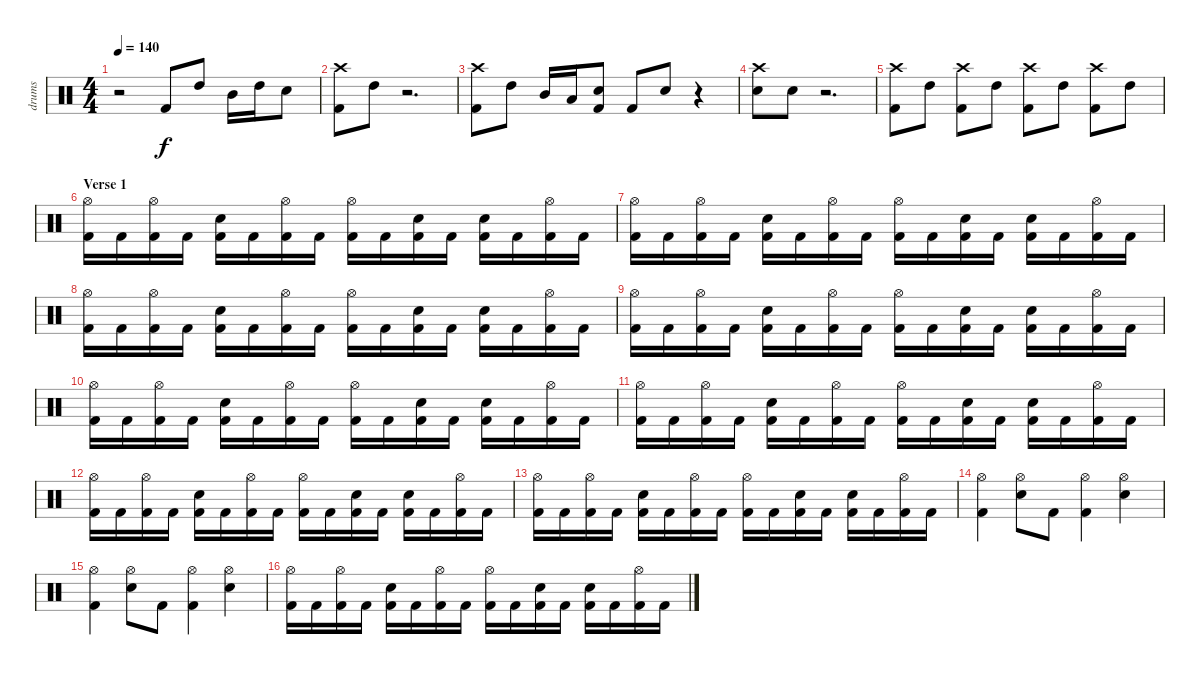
\track ("drums" "drums") {instrument percussion}
\staff {score}
\articulation defaults
\ts (4 4)
\tempo 140
\clef neutral
\ks c
r.2{dy f} "Kick (hit) 2".8 "High Tom (hit)".8 "Mid Tom (hit)".16 "High Tom (hit)".16 "Electric Snare (hit)".8 |
("Crash high (hit)" "Kick (hit) 2").8 "High Tom (hit)".8 r.2{d} |
("Crash high (hit)" "Kick (hit) 2").8 "High Tom (hit)".8 "Mid Tom (hit)".16 "Low Tom (hit)".16 ("Electric Snare (hit)" "Kick (hit) 2").8 "Kick (hit) 2".8 "Electric Snare (hit)".8 r.4 |
("Crash high (hit)" "Electric Snare (hit)").8 "Electric Snare (hit)".8 r.2{d} |
("Crash high (hit)" "Kick (hit) 2").8 "High Tom (hit)".8 ("Crash high (hit)" "Kick (hit) 2").8 "High Tom (hit)".8 ("Crash high (hit)" "Kick (hit) 2").8 "High Tom (hit)".8 ("Crash high (hit)" "Kick (hit) 2").8 "High Tom (hit)".8 |
\section ("" "Verse 1")
("Hi-Hat (open)" "Kick (hit) 2").16 "Kick (hit) 2".16 ("Hi-Hat (open)" "Kick (hit) 2").16 "Kick (hit) 2".16 ("Electric Snare (hit)" "Kick (hit) 2").16 "Kick (hit) 2".16 ("Hi-Hat (open)" "Kick (hit) 2").16 "Kick (hit) 2".16 ("Hi-Hat (open)" "Kick (hit) 2").16 "Kick (hit) 2".16 ("Electric Snare (hit)" "Kick (hit) 2").16 "Kick (hit) 2".16 ("Electric Snare (hit)" "Kick (hit) 2").16 "Kick (hit) 2".16 ("Hi-Hat (open)" "Kick (hit) 2").16 "Kick (hit) 2".16 |
("Hi-Hat (open)" "Kick (hit) 2").16 "Kick (hit) 2".16 ("Hi-Hat (open)" "Kick (hit) 2").16 "Kick (hit) 2".16 ("Electric Snare (hit)" "Kick (hit) 2").16 "Kick (hit) 2".16 ("Hi-Hat (open)" "Kick (hit) 2").16 "Kick (hit) 2".16 ("Hi-Hat (open)" "Kick (hit) 2").16 "Kick (hit) 2".16 ("Electric Snare (hit)" "Kick (hit) 2").16 "Kick (hit) 2".16 ("Electric Snare (hit)" "Kick (hit) 2").16 "Kick (hit) 2".16 ("Hi-Hat (open)" "Kick (hit) 2").16 "Kick (hit) 2".16 |
("Hi-Hat (open)" "Kick (hit) 2").16 "Kick (hit) 2".16 ("Hi-Hat (open)" "Kick (hit) 2").16 "Kick (hit) 2".16 ("Electric Snare (hit)" "Kick (hit) 2").16 "Kick (hit) 2".16 ("Hi-Hat (open)" "Kick (hit) 2").16 "Kick (hit) 2".16 ("Hi-Hat (open)" "Kick (hit) 2").16 "Kick (hit) 2".16 ("Electric Snare (hit)" "Kick (hit) 2").16 "Kick (hit) 2".16 ("Electric Snare (hit)" "Kick (hit) 2").16 "Kick (hit) 2".16 ("Hi-Hat (open)" "Kick (hit) 2").16 "Kick (hit) 2".16 |
("Hi-Hat (open)" "Kick (hit) 2").16 "Kick (hit) 2".16 ("Hi-Hat (open)" "Kick (hit) 2").16 "Kick (hit) 2".16 ("Electric Snare (hit)" "Kick (hit) 2").16 "Kick (hit) 2".16 ("Hi-Hat (open)" "Kick (hit) 2").16 "Kick (hit) 2".16 ("Hi-Hat (open)" "Kick (hit) 2").16 "Kick (hit) 2".16 ("Electric Snare (hit)" "Kick (hit) 2").16 "Kick (hit) 2".16 ("Electric Snare (hit)" "Kick (hit) 2").16 "Kick (hit) 2".16 ("Hi-Hat (open)" "Kick (hit) 2").16 "Kick (hit) 2".16 |
("Hi-Hat (open)" "Kick (hit) 2").16 "Kick (hit) 2".16 ("Hi-Hat (open)" "Kick (hit) 2").16 "Kick (hit) 2".16 ("Electric Snare (hit)" "Kick (hit) 2").16 "Kick (hit) 2".16 ("Hi-Hat (open)" "Kick (hit) 2").16 "Kick (hit) 2".16 ("Hi-Hat (open)" "Kick (hit) 2").16 "Kick (hit) 2".16 ("Electric Snare (hit)" "Kick (hit) 2").16 "Kick (hit) 2".16 ("Electric Snare (hit)" "Kick (hit) 2").16 "Kick (hit) 2".16 ("Hi-Hat (open)" "Kick (hit) 2").16 "Kick (hit) 2".16 |
("Hi-Hat (open)" "Kick (hit) 2").16 "Kick (hit) 2".16 ("Hi-Hat (open)" "Kick (hit) 2").16 "Kick (hit) 2".16 ("Electric Snare (hit)" "Kick (hit) 2").16 "Kick (hit) 2".16 ("Hi-Hat (open)" "Kick (hit) 2").16 "Kick (hit) 2".16 ("Hi-Hat (open)" "Kick (hit) 2").16 "Kick (hit) 2".16 ("Electric Snare (hit)" "Kick (hit) 2").16 "Kick (hit) 2".16 ("Electric Snare (hit)" "Kick (hit) 2").16 "Kick (hit) 2".16 ("Hi-Hat (open)" "Kick (hit) 2").16 "Kick (hit) 2".16 |
("Hi-Hat (open)" "Kick (hit) 2").16 "Kick (hit) 2".16 ("Hi-Hat (open)" "Kick (hit) 2").16 "Kick (hit) 2".16 ("Electric Snare (hit)" "Kick (hit) 2").16 "Kick (hit) 2".16 ("Hi-Hat (open)" "Kick (hit) 2").16 "Kick (hit) 2".16 ("Hi-Hat (open)" "Kick (hit) 2").16 "Kick (hit) 2".16 ("Electric Snare (hit)" "Kick (hit) 2").16 "Kick (hit) 2".16 ("Electric Snare (hit)" "Kick (hit) 2").16 "Kick (hit) 2".16 ("Hi-Hat (open)" "Kick (hit) 2").16 "Kick (hit) 2".16 |
("Hi-Hat (open)" "Kick (hit) 2").16 "Kick (hit) 2".16 ("Hi-Hat (open)" "Kick (hit) 2").16 "Kick (hit) 2".16 ("Electric Snare (hit)" "Kick (hit) 2").16 "Kick (hit) 2".16 ("Hi-Hat (open)" "Kick (hit) 2").16 "Kick (hit) 2".16 ("Hi-Hat (open)" "Kick (hit) 2").16 "Kick (hit) 2".16 ("Electric Snare (hit)" "Kick (hit) 2").16 "Kick (hit) 2".16 ("Electric Snare (hit)" "Kick (hit) 2").16 "Kick (hit) 2".16 ("Hi-Hat (open)" "Kick (hit) 2").16 "Kick (hit) 2".16 |
("Hi-Hat (open)" "Kick (hit) 2").4 ("Hi-Hat (open)" "Electric Snare (hit)").8 "Kick (hit) 2".8 ("Hi-Hat (open)" "Kick (hit) 2").4 ("Hi-Hat (open)" "Electric Snare (hit)").4 |
("Hi-Hat (open)" "Kick (hit) 2").4 ("Hi-Hat (open)" "Electric Snare (hit)").8 "Kick (hit) 2".8 ("Hi-Hat (open)" "Kick (hit) 2").4 ("Hi-Hat (open)" "Electric Snare (hit)").4 |
("Hi-Hat (open)" "Kick (hit) 2").16 "Kick (hit) 2".16 ("Hi-Hat (open)" "Kick (hit) 2").16 "Kick (hit) 2".16 ("Electric Snare (hit)" "Kick (hit) 2").16 "Kick (hit) 2".16 ("Hi-Hat (open)" "Kick (hit) 2").16 "Kick (hit) 2".16 ("Hi-Hat (open)" "Kick (hit) 2").16 "Kick (hit) 2".16 ("Electric Snare (hit)" "Kick (hit) 2").16 "Kick (hit) 2".16 ("Electric Snare (hit)" "Kick (hit) 2").16 "Kick (hit) 2".16 ("Hi-Hat (open)" "Kick (hit) 2").16 "Kick (hit) 2".16
